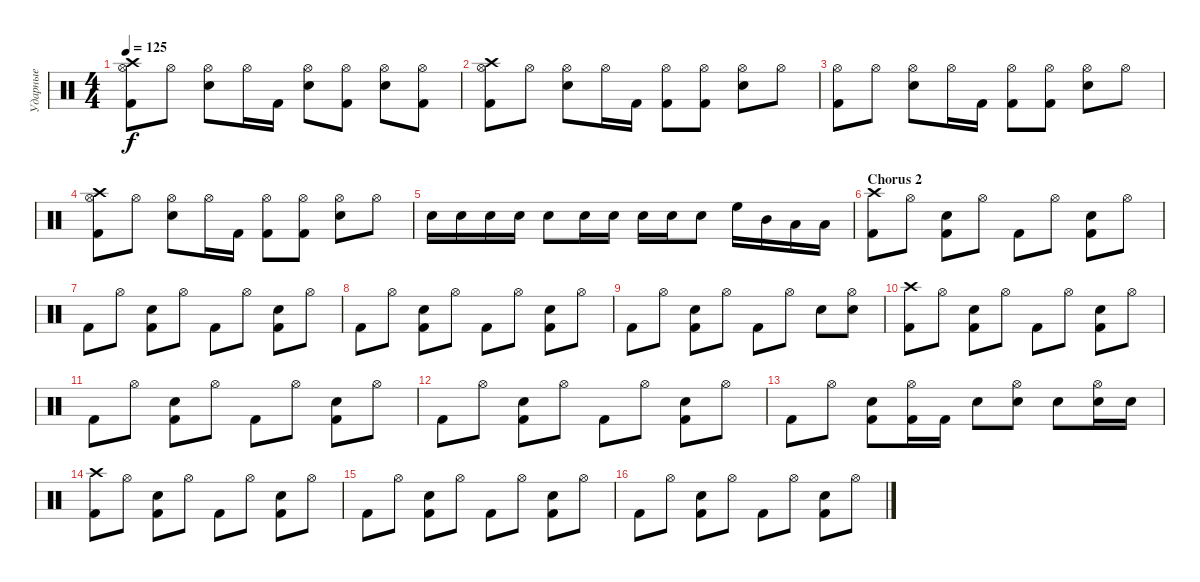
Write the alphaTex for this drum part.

\track ("Ударные" "Ударные") {instrument percussion}
\staff {score}
\articulation defaults
\ts (4 4)
\tempo 125
\clef neutral
\ks c
("Hi-Hat (open)" "Crash high (hit)" "Kick (hit) 2").8{dy f} "Hi-Hat (open)".8 ("Hi-Hat (open)" "Snare (hit) 2").8 "Hi-Hat (open)".16 "Kick (hit) 2".16 ("Hi-Hat (open)" "Snare (hit) 2").8 ("Hi-Hat (open)" "Kick (hit) 2").8 ("Hi-Hat (open)" "Snare (hit) 2").8 ("Hi-Hat (open)" "Kick (hit) 2").8 |
("Hi-Hat (open)" "Crash high (hit)" "Kick (hit) 2").8 "Hi-Hat (open)".8 ("Hi-Hat (open)" "Snare (hit) 2").8 "Hi-Hat (open)".16 "Kick (hit) 2".16 ("Hi-Hat (open)" "Kick (hit) 2").8 ("Hi-Hat (open)" "Kick (hit) 2").8 ("Hi-Hat (open)" "Snare (hit) 2").8 "Hi-Hat (open)".8 |
("Hi-Hat (open)" "Kick (hit) 2").8 "Hi-Hat (open)".8 ("Hi-Hat (open)" "Snare (hit) 2").8 "Hi-Hat (open)".16 "Kick (hit) 2".16 ("Hi-Hat (open)" "Kick (hit) 2").8 ("Hi-Hat (open)" "Kick (hit) 2").8 ("Hi-Hat (open)" "Snare (hit) 2").8 "Hi-Hat (open)".8 |
("Hi-Hat (open)" "Crash high (hit)" "Kick (hit) 2").8 "Hi-Hat (open)".8 ("Hi-Hat (open)" "Snare (hit) 2").8 "Hi-Hat (open)".16 "Kick (hit) 2".16 ("Hi-Hat (open)" "Kick (hit) 2").8 ("Hi-Hat (open)" "Kick (hit) 2").8 ("Hi-Hat (open)" "Snare (hit) 2").8 "Hi-Hat (open)".8 |
"Snare (hit) 2".16 "Snare (hit) 2".16 "Snare (hit) 2".16 "Snare (hit) 2".16 "Snare (hit) 2".8 "Snare (hit) 2".16 "Snare (hit) 2".16 "Snare (hit) 2".16 "Snare (hit) 2".16 "Snare (hit) 2".8 "High Floor Tom (hit)".16 "Mid Tom (hit)".16 "Low Tom (hit)".16 "Low Floor Tom (hit)".16 |
\section ("" "Chorus 2")
("Crash high (hit)" "Kick (hit) 2").8 "Hi-Hat (open)".8 ("Snare (hit) 2" "Kick (hit) 2").8 "Hi-Hat (open)".8 "Kick (hit) 2".8 "Hi-Hat (open)".8 ("Snare (hit) 2" "Kick (hit) 2").8 "Hi-Hat (open)".8 |
"Kick (hit) 2".8 "Hi-Hat (open)".8 ("Snare (hit) 2" "Kick (hit) 2").8 "Hi-Hat (open)".8 "Kick (hit) 2".8 "Hi-Hat (open)".8 ("Snare (hit) 2" "Kick (hit) 2").8 "Hi-Hat (open)".8 |
"Kick (hit) 2".8 "Hi-Hat (open)".8 ("Snare (hit) 2" "Kick (hit) 2").8 "Hi-Hat (open)".8 "Kick (hit) 2".8 "Hi-Hat (open)".8 ("Snare (hit) 2" "Kick (hit) 2").8 "Hi-Hat (open)".8 |
"Kick (hit) 2".8 "Hi-Hat (open)".8 ("Snare (hit) 2" "Kick (hit) 2").8 "Hi-Hat (open)".8 "Kick (hit) 2".8 "Hi-Hat (open)".8 "Snare (hit) 2".8 ("Hi-Hat (open)" "Snare (hit) 2").8 |
("Crash high (hit)" "Kick (hit) 2").8 "Hi-Hat (open)".8 ("Snare (hit) 2" "Kick (hit) 2").8 "Hi-Hat (open)".8 "Kick (hit) 2".8 "Hi-Hat (open)".8 ("Snare (hit) 2" "Kick (hit) 2").8 "Hi-Hat (open)".8 |
"Kick (hit) 2".8 "Hi-Hat (open)".8 ("Snare (hit) 2" "Kick (hit) 2").8 "Hi-Hat (open)".8 "Kick (hit) 2".8 "Hi-Hat (open)".8 ("Snare (hit) 2" "Kick (hit) 2").8 "Hi-Hat (open)".8 |
"Kick (hit) 2".8 "Hi-Hat (open)".8 ("Snare (hit) 2" "Kick (hit) 2").8 "Hi-Hat (open)".8 "Kick (hit) 2".8 "Hi-Hat (open)".8 ("Snare (hit) 2" "Kick (hit) 2").8 "Hi-Hat (open)".8 |
"Kick (hit) 2".8 "Hi-Hat (open)".8 ("Snare (hit) 2" "Kick (hit) 2").8 ("Hi-Hat (open)" "Kick (hit) 2").16 "Kick (hit) 2".16 "Snare (hit) 2".8 ("Hi-Hat (open)" "Snare (hit) 2").8 "Snare (hit) 2".8 ("Hi-Hat (open)" "Snare (hit) 2").16 "Snare (hit) 2".16 |
("Crash high (hit)" "Kick (hit) 2").8 "Hi-Hat (open)".8 ("Snare (hit) 2" "Kick (hit) 2").8 "Hi-Hat (open)".8 "Kick (hit) 2".8 "Hi-Hat (open)".8 ("Snare (hit) 2" "Kick (hit) 2").8 "Hi-Hat (open)".8 |
"Kick (hit) 2".8 "Hi-Hat (open)".8 ("Snare (hit) 2" "Kick (hit) 2").8 "Hi-Hat (open)".8 "Kick (hit) 2".8 "Hi-Hat (open)".8 ("Snare (hit) 2" "Kick (hit) 2").8 "Hi-Hat (open)".8 |
"Kick (hit) 2".8 "Hi-Hat (open)".8 ("Snare (hit) 2" "Kick (hit) 2").8 "Hi-Hat (open)".8 "Kick (hit) 2".8 "Hi-Hat (open)".8 ("Snare (hit) 2" "Kick (hit) 2").8 "Hi-Hat (open)".8
